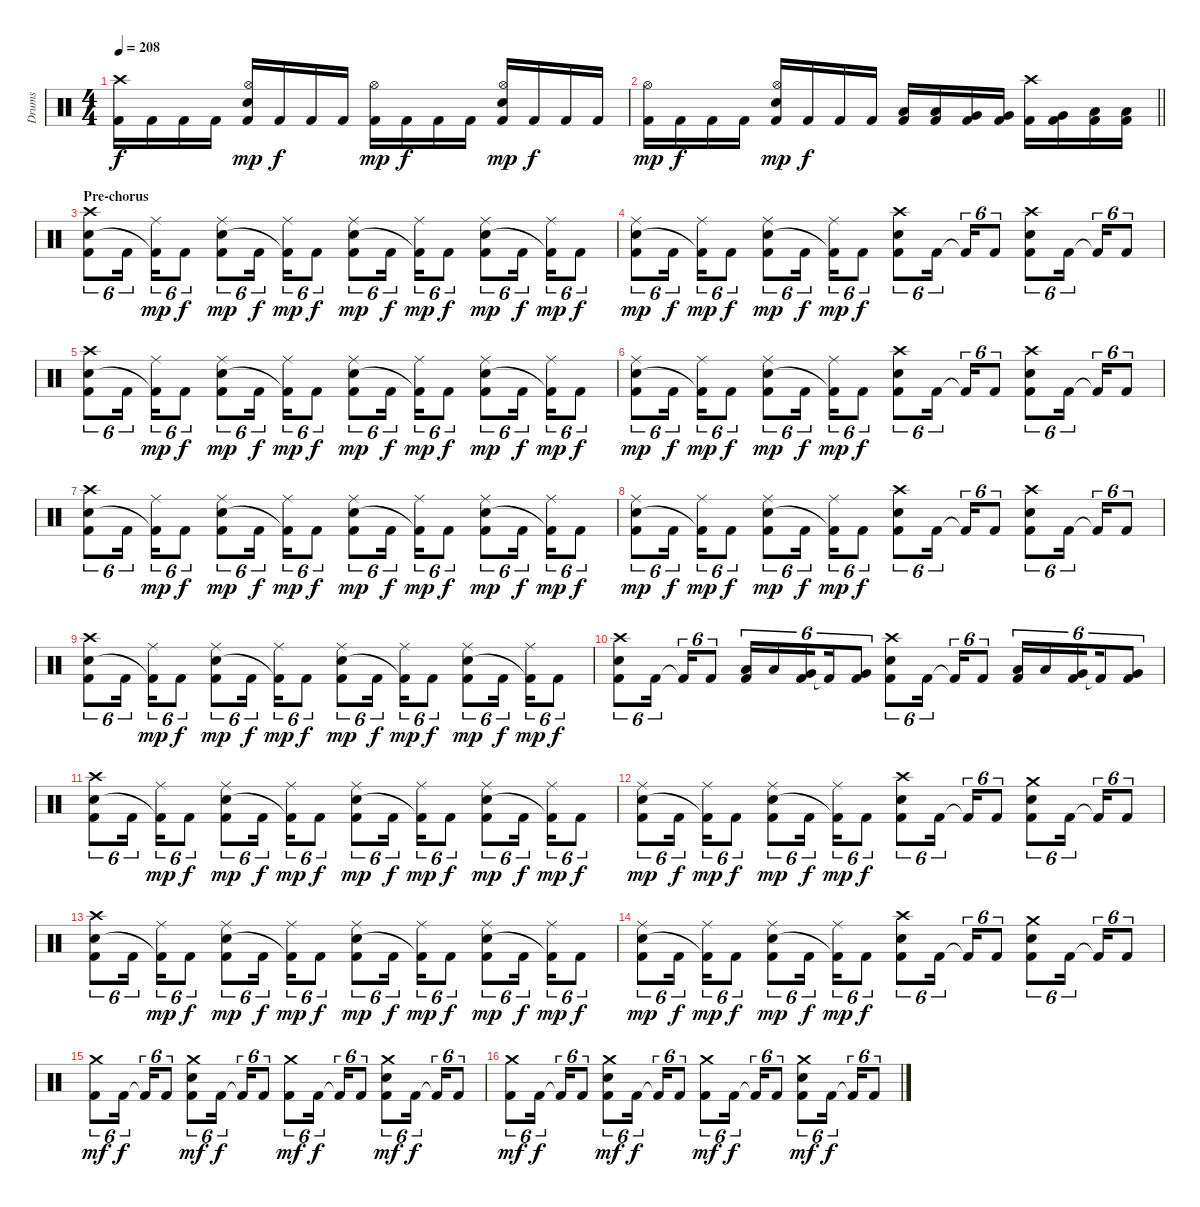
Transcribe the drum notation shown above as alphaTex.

\track ("Drums" "Drums") {instrument percussion}
\staff {score}
\articulation defaults
\ts (4 4)
\tempo 208
\clef neutral
\ks c
("Crash high (hit)" "Kick (hit) 2").16{dy f} "Kick (hit) 2".16 "Kick (hit) 2".16 "Kick (hit) 2".16 ("Hi-Hat (open)" "Electric Snare (hit)" "Kick (hit) 2").16{dy mp} "Kick (hit) 2".16{dy f} "Kick (hit) 2".16 "Kick (hit) 2".16 ("Hi-Hat (open)" "Kick (hit) 2").16{dy mp} "Kick (hit) 2".16{dy f} "Kick (hit) 2".16 "Kick (hit) 2".16 ("Hi-Hat (open)" "Electric Snare (hit)" "Kick (hit) 2").16{dy mp} "Kick (hit) 2".16{dy f} "Kick (hit) 2".16 "Kick (hit) 2".16 |
\barLineRight lightlight
("Hi-Hat (open)" "Kick (hit) 2").16{dy mp} "Kick (hit) 2".16{dy f} "Kick (hit) 2".16 "Kick (hit) 2".16 ("Hi-Hat (open)" "Electric Snare (hit)" "Kick (hit) 2").16{dy mp} "Kick (hit) 2".16{dy f} "Kick (hit) 2".16 "Kick (hit) 2".16 ("Low Tom (hit)" "Kick (hit) 2").16 ("Low Tom (hit)" "Kick (hit) 2").16 ("Very Low Tom (hit)" "Kick (hit) 2").16 ("Very Low Tom (hit)" "Kick (hit) 2").16 ("Crash high (hit)" "Kick (hit) 2").16 ("Very Low Tom (hit)" "Kick (hit) 2").16 ("Low Floor Tom (hit)" "Kick (hit) 2").16 ("Low Floor Tom (hit)" "Kick (hit) 2").16 |
\section ("" "Pre-chorus")
("Crash high (hit)" "Electric Snare (hit)" "Kick (hit) 2").8{tu (6 4)} "Kick (hit) 2".16{tu (6 4) beam splitsecondary} ("Ride (middle)" "Kick (hit) 2"{t}).16{tu (6 4) dy mp} "Kick (hit) 2".8{tu (6 4) dy f} ("Ride (middle)" "Electric Snare (hit)" "Kick (hit) 2").8{tu (6 4) dy mp} "Kick (hit) 2".16{tu (6 4) dy f beam splitsecondary} ("Ride (middle)" "Kick (hit) 2"{t}).16{tu (6 4) dy mp} "Kick (hit) 2".8{tu (6 4) dy f} ("Ride (middle)" "Electric Snare (hit)" "Kick (hit) 2").8{tu (6 4) dy mp} "Kick (hit) 2".16{tu (6 4) dy f beam splitsecondary} ("Ride (middle)" "Kick (hit) 2"{t}).16{tu (6 4) dy mp} "Kick (hit) 2".8{tu (6 4) dy f} ("Ride (middle)" "Electric Snare (hit)" "Kick (hit) 2").8{tu (6 4) dy mp} "Kick (hit) 2".16{tu (6 4) dy f beam splitsecondary} ("Ride (middle)" "Kick (hit) 2"{t}).16{tu (6 4) dy mp} "Kick (hit) 2".8{tu (6 4) dy f} |
("Ride (middle)" "Electric Snare (hit)" "Kick (hit) 2").8{tu (6 4) dy mp} "Kick (hit) 2".16{tu (6 4) dy f beam splitsecondary} ("Ride (middle)" "Kick (hit) 2"{t}).16{tu (6 4) dy mp} "Kick (hit) 2".8{tu (6 4) dy f} ("Ride (middle)" "Electric Snare (hit)" "Kick (hit) 2").8{tu (6 4) dy mp} "Kick (hit) 2".16{tu (6 4) dy f beam splitsecondary} ("Ride (middle)" "Kick (hit) 2"{t}).16{tu (6 4) dy mp} "Kick (hit) 2".8{tu (6 4) dy f} ("Crash high (hit)" "Electric Snare (hit)" "Kick (hit) 2").8{tu (6 4)} "Kick (hit) 2".16{tu (6 4) beam splitsecondary} "Kick (hit) 2"{t}.16{tu (6 4)} "Kick (hit) 2".8{tu (6 4)} ("Crash high (hit)" "Electric Snare (hit)" "Kick (hit) 2").8{tu (6 4)} "Kick (hit) 2".16{tu (6 4) beam splitsecondary} "Kick (hit) 2"{t}.16{tu (6 4)} "Kick (hit) 2".8{tu (6 4)} |
("Crash high (hit)" "Electric Snare (hit)" "Kick (hit) 2").8{tu (6 4)} "Kick (hit) 2".16{tu (6 4) beam splitsecondary} ("Ride (middle)" "Kick (hit) 2"{t}).16{tu (6 4) dy mp} "Kick (hit) 2".8{tu (6 4) dy f} ("Ride (middle)" "Electric Snare (hit)" "Kick (hit) 2").8{tu (6 4) dy mp} "Kick (hit) 2".16{tu (6 4) dy f beam splitsecondary} ("Ride (middle)" "Kick (hit) 2"{t}).16{tu (6 4) dy mp} "Kick (hit) 2".8{tu (6 4) dy f} ("Ride (middle)" "Electric Snare (hit)" "Kick (hit) 2").8{tu (6 4) dy mp} "Kick (hit) 2".16{tu (6 4) dy f beam splitsecondary} ("Ride (middle)" "Kick (hit) 2"{t}).16{tu (6 4) dy mp} "Kick (hit) 2".8{tu (6 4) dy f} ("Ride (middle)" "Electric Snare (hit)" "Kick (hit) 2").8{tu (6 4) dy mp} "Kick (hit) 2".16{tu (6 4) dy f beam splitsecondary} ("Ride (middle)" "Kick (hit) 2"{t}).16{tu (6 4) dy mp} "Kick (hit) 2".8{tu (6 4) dy f} |
("Ride (middle)" "Electric Snare (hit)" "Kick (hit) 2").8{tu (6 4) dy mp} "Kick (hit) 2".16{tu (6 4) dy f beam splitsecondary} ("Ride (middle)" "Kick (hit) 2"{t}).16{tu (6 4) dy mp} "Kick (hit) 2".8{tu (6 4) dy f} ("Ride (middle)" "Electric Snare (hit)" "Kick (hit) 2").8{tu (6 4) dy mp} "Kick (hit) 2".16{tu (6 4) dy f beam splitsecondary} ("Ride (middle)" "Kick (hit) 2"{t}).16{tu (6 4) dy mp} "Kick (hit) 2".8{tu (6 4) dy f} ("Crash high (hit)" "Electric Snare (hit)" "Kick (hit) 2").8{tu (6 4)} "Kick (hit) 2".16{tu (6 4) beam splitsecondary} "Kick (hit) 2"{t}.16{tu (6 4)} "Kick (hit) 2".8{tu (6 4)} ("Crash high (hit)" "Electric Snare (hit)" "Kick (hit) 2").8{tu (6 4)} "Kick (hit) 2".16{tu (6 4) beam splitsecondary} "Kick (hit) 2"{t}.16{tu (6 4)} "Kick (hit) 2".8{tu (6 4)} |
("Crash high (hit)" "Electric Snare (hit)" "Kick (hit) 2").8{tu (6 4)} "Kick (hit) 2".16{tu (6 4) beam splitsecondary} ("Ride (middle)" "Kick (hit) 2"{t}).16{tu (6 4) dy mp} "Kick (hit) 2".8{tu (6 4) dy f} ("Ride (middle)" "Electric Snare (hit)" "Kick (hit) 2").8{tu (6 4) dy mp} "Kick (hit) 2".16{tu (6 4) dy f beam splitsecondary} ("Ride (middle)" "Kick (hit) 2"{t}).16{tu (6 4) dy mp} "Kick (hit) 2".8{tu (6 4) dy f} ("Ride (middle)" "Electric Snare (hit)" "Kick (hit) 2").8{tu (6 4) dy mp} "Kick (hit) 2".16{tu (6 4) dy f beam splitsecondary} ("Ride (middle)" "Kick (hit) 2"{t}).16{tu (6 4) dy mp} "Kick (hit) 2".8{tu (6 4) dy f} ("Ride (middle)" "Electric Snare (hit)" "Kick (hit) 2").8{tu (6 4) dy mp} "Kick (hit) 2".16{tu (6 4) dy f beam splitsecondary} ("Ride (middle)" "Kick (hit) 2"{t}).16{tu (6 4) dy mp} "Kick (hit) 2".8{tu (6 4) dy f} |
("Ride (middle)" "Electric Snare (hit)" "Kick (hit) 2").8{tu (6 4) dy mp} "Kick (hit) 2".16{tu (6 4) dy f beam splitsecondary} ("Ride (middle)" "Kick (hit) 2"{t}).16{tu (6 4) dy mp} "Kick (hit) 2".8{tu (6 4) dy f} ("Ride (middle)" "Electric Snare (hit)" "Kick (hit) 2").8{tu (6 4) dy mp} "Kick (hit) 2".16{tu (6 4) dy f beam splitsecondary} ("Ride (middle)" "Kick (hit) 2"{t}).16{tu (6 4) dy mp} "Kick (hit) 2".8{tu (6 4) dy f} ("Crash high (hit)" "Electric Snare (hit)" "Kick (hit) 2").8{tu (6 4)} "Kick (hit) 2".16{tu (6 4) beam splitsecondary} "Kick (hit) 2"{t}.16{tu (6 4)} "Kick (hit) 2".8{tu (6 4)} ("Crash high (hit)" "Electric Snare (hit)" "Kick (hit) 2").8{tu (6 4)} "Kick (hit) 2".16{tu (6 4) beam splitsecondary} "Kick (hit) 2"{t}.16{tu (6 4)} "Kick (hit) 2".8{tu (6 4)} |
("Crash high (hit)" "Electric Snare (hit)" "Kick (hit) 2").8{tu (6 4)} "Kick (hit) 2".16{tu (6 4) beam splitsecondary} ("Ride (middle)" "Kick (hit) 2"{t}).16{tu (6 4) dy mp} "Kick (hit) 2".8{tu (6 4) dy f} ("Ride (middle)" "Electric Snare (hit)" "Kick (hit) 2").8{tu (6 4) dy mp} "Kick (hit) 2".16{tu (6 4) dy f beam splitsecondary} ("Ride (middle)" "Kick (hit) 2"{t}).16{tu (6 4) dy mp} "Kick (hit) 2".8{tu (6 4) dy f} ("Ride (middle)" "Electric Snare (hit)" "Kick (hit) 2").8{tu (6 4) dy mp} "Kick (hit) 2".16{tu (6 4) dy f beam splitsecondary} ("Ride (middle)" "Kick (hit) 2"{t}).16{tu (6 4) dy mp} "Kick (hit) 2".8{tu (6 4) dy f} ("Ride (middle)" "Electric Snare (hit)" "Kick (hit) 2").8{tu (6 4) dy mp} "Kick (hit) 2".16{tu (6 4) dy f beam splitsecondary} ("Ride (middle)" "Kick (hit) 2"{t}).16{tu (6 4) dy mp} "Kick (hit) 2".8{tu (6 4) dy f} |
("Crash high (hit)" "Electric Snare (hit)" "Kick (hit) 2").8{tu (6 4)} "Kick (hit) 2".16{tu (6 4) beam splitsecondary} "Kick (hit) 2"{t}.16{tu (6 4)} "Kick (hit) 2".8{tu (6 4)} ("Low Tom (hit)" "Kick (hit) 2").16{tu (6 4)} "Low Tom (hit)".16{tu (6 4)} ("Very Low Tom (hit)" "Kick (hit) 2").16{tu (6 4) beam splitsecondary} "Kick (hit) 2"{t}.16{tu (6 4)} ("Very Low Tom (hit)" "Kick (hit) 2").8{tu (6 4)} ("Crash high (hit)" "Electric Snare (hit)" "Kick (hit) 2").8{tu (6 4)} "Kick (hit) 2".16{tu (6 4) beam splitsecondary} "Kick (hit) 2"{t}.16{tu (6 4)} "Kick (hit) 2".8{tu (6 4)} ("Low Tom (hit)" "Kick (hit) 2").16{tu (6 4)} "Low Tom (hit)".16{tu (6 4)} ("Very Low Tom (hit)" "Kick (hit) 2").16{tu (6 4) beam splitsecondary} "Kick (hit) 2"{t}.16{tu (6 4)} ("Very Low Tom (hit)" "Kick (hit) 2").8{tu (6 4)} |
("Crash high (hit)" "Electric Snare (hit)" "Kick (hit) 2").8{tu (6 4)} "Kick (hit) 2".16{tu (6 4) beam splitsecondary} ("Ride (middle)" "Kick (hit) 2"{t}).16{tu (6 4) dy mp} "Kick (hit) 2".8{tu (6 4) dy f} ("Ride (middle)" "Electric Snare (hit)" "Kick (hit) 2").8{tu (6 4) dy mp} "Kick (hit) 2".16{tu (6 4) dy f beam splitsecondary} ("Ride (middle)" "Kick (hit) 2"{t}).16{tu (6 4) dy mp} "Kick (hit) 2".8{tu (6 4) dy f} ("Ride (middle)" "Electric Snare (hit)" "Kick (hit) 2").8{tu (6 4) dy mp} "Kick (hit) 2".16{tu (6 4) dy f beam splitsecondary} ("Ride (middle)" "Kick (hit) 2"{t}).16{tu (6 4) dy mp} "Kick (hit) 2".8{tu (6 4) dy f} ("Ride (middle)" "Electric Snare (hit)" "Kick (hit) 2").8{tu (6 4) dy mp} "Kick (hit) 2".16{tu (6 4) dy f beam splitsecondary} ("Ride (middle)" "Kick (hit) 2"{t}).16{tu (6 4) dy mp} "Kick (hit) 2".8{tu (6 4) dy f} |
("Ride (middle)" "Electric Snare (hit)" "Kick (hit) 2").8{tu (6 4) dy mp} "Kick (hit) 2".16{tu (6 4) dy f beam splitsecondary} ("Ride (middle)" "Kick (hit) 2"{t}).16{tu (6 4) dy mp} "Kick (hit) 2".8{tu (6 4) dy f} ("Ride (middle)" "Electric Snare (hit)" "Kick (hit) 2").8{tu (6 4) dy mp} "Kick (hit) 2".16{tu (6 4) dy f beam splitsecondary} ("Ride (middle)" "Kick (hit) 2"{t}).16{tu (6 4) dy mp} "Kick (hit) 2".8{tu (6 4) dy f} ("Crash high (hit)" "Electric Snare (hit)" "Kick (hit) 2").8{tu (6 4)} "Kick (hit) 2".16{tu (6 4) beam splitsecondary} "Kick (hit) 2"{t}.16{tu (6 4)} "Kick (hit) 2".8{tu (6 4)} ("Crash medium (hit)" "Electric Snare (hit)" "Kick (hit) 2").8{tu (6 4)} "Kick (hit) 2".16{tu (6 4) beam splitsecondary} "Kick (hit) 2"{t}.16{tu (6 4)} "Kick (hit) 2".8{tu (6 4)} |
("Crash high (hit)" "Electric Snare (hit)" "Kick (hit) 2").8{tu (6 4)} "Kick (hit) 2".16{tu (6 4) beam splitsecondary} ("Ride (middle)" "Kick (hit) 2"{t}).16{tu (6 4) dy mp} "Kick (hit) 2".8{tu (6 4) dy f} ("Ride (middle)" "Electric Snare (hit)" "Kick (hit) 2").8{tu (6 4) dy mp} "Kick (hit) 2".16{tu (6 4) dy f beam splitsecondary} ("Ride (middle)" "Kick (hit) 2"{t}).16{tu (6 4) dy mp} "Kick (hit) 2".8{tu (6 4) dy f} ("Ride (middle)" "Electric Snare (hit)" "Kick (hit) 2").8{tu (6 4) dy mp} "Kick (hit) 2".16{tu (6 4) dy f beam splitsecondary} ("Ride (middle)" "Kick (hit) 2"{t}).16{tu (6 4) dy mp} "Kick (hit) 2".8{tu (6 4) dy f} ("Ride (middle)" "Electric Snare (hit)" "Kick (hit) 2").8{tu (6 4) dy mp} "Kick (hit) 2".16{tu (6 4) dy f beam splitsecondary} ("Ride (middle)" "Kick (hit) 2"{t}).16{tu (6 4) dy mp} "Kick (hit) 2".8{tu (6 4) dy f} |
("Ride (middle)" "Electric Snare (hit)" "Kick (hit) 2").8{tu (6 4) dy mp} "Kick (hit) 2".16{tu (6 4) dy f beam splitsecondary} ("Ride (middle)" "Kick (hit) 2"{t}).16{tu (6 4) dy mp} "Kick (hit) 2".8{tu (6 4) dy f} ("Ride (middle)" "Electric Snare (hit)" "Kick (hit) 2").8{tu (6 4) dy mp} "Kick (hit) 2".16{tu (6 4) dy f beam splitsecondary} ("Ride (middle)" "Kick (hit) 2"{t}).16{tu (6 4) dy mp} "Kick (hit) 2".8{tu (6 4) dy f} ("Crash high (hit)" "Electric Snare (hit)" "Kick (hit) 2").8{tu (6 4)} "Kick (hit) 2".16{tu (6 4) beam splitsecondary} "Kick (hit) 2"{t}.16{tu (6 4)} "Kick (hit) 2".8{tu (6 4)} ("Crash medium (hit)" "Electric Snare (hit)" "Kick (hit) 2").8{tu (6 4)} "Kick (hit) 2".16{tu (6 4) beam splitsecondary} "Kick (hit) 2"{t}.16{tu (6 4)} "Kick (hit) 2".8{tu (6 4)} |
("Crash medium (hit)" "Kick (hit) 2").8{tu (6 4) dy mf} "Kick (hit) 2".16{tu (6 4) dy f beam splitsecondary} "Kick (hit) 2"{t}.16{tu (6 4)} "Kick (hit) 2".8{tu (6 4)} ("Crash medium (hit)" "Electric Snare (hit)" "Kick (hit) 2").8{tu (6 4) dy mf} "Kick (hit) 2".16{tu (6 4) dy f beam splitsecondary} "Kick (hit) 2"{t}.16{tu (6 4)} "Kick (hit) 2".8{tu (6 4)} ("Crash medium (hit)" "Kick (hit) 2").8{tu (6 4) dy mf} "Kick (hit) 2".16{tu (6 4) dy f beam splitsecondary} "Kick (hit) 2"{t}.16{tu (6 4)} "Kick (hit) 2".8{tu (6 4)} ("Crash medium (hit)" "Electric Snare (hit)" "Kick (hit) 2").8{tu (6 4) dy mf} "Kick (hit) 2".16{tu (6 4) dy f beam splitsecondary} "Kick (hit) 2"{t}.16{tu (6 4)} "Kick (hit) 2".8{tu (6 4)} |
("Crash medium (hit)" "Kick (hit) 2").8{tu (6 4) dy mf} "Kick (hit) 2".16{tu (6 4) dy f beam splitsecondary} "Kick (hit) 2"{t}.16{tu (6 4)} "Kick (hit) 2".8{tu (6 4)} ("Crash medium (hit)" "Electric Snare (hit)" "Kick (hit) 2").8{tu (6 4) dy mf} "Kick (hit) 2".16{tu (6 4) dy f beam splitsecondary} "Kick (hit) 2"{t}.16{tu (6 4)} "Kick (hit) 2".8{tu (6 4)} ("Crash medium (hit)" "Kick (hit) 2").8{tu (6 4) dy mf} "Kick (hit) 2".16{tu (6 4) dy f beam splitsecondary} "Kick (hit) 2"{t}.16{tu (6 4)} "Kick (hit) 2".8{tu (6 4)} ("Crash medium (hit)" "Electric Snare (hit)" "Kick (hit) 2").8{tu (6 4) dy mf} "Kick (hit) 2".16{tu (6 4) dy f beam splitsecondary} "Kick (hit) 2"{t}.16{tu (6 4)} "Kick (hit) 2".8{tu (6 4)}
